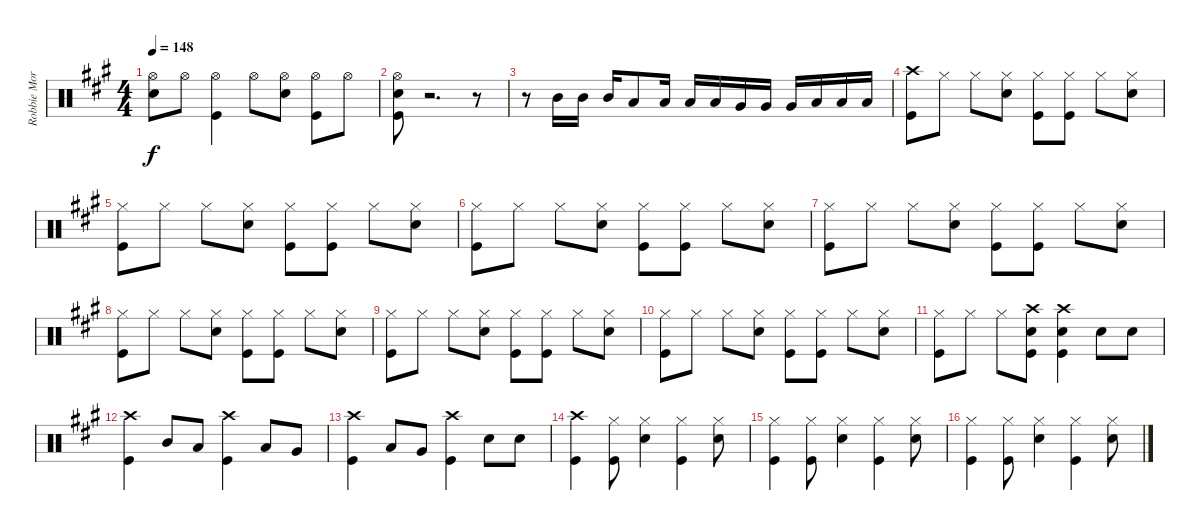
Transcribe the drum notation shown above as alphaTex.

\track ("Robbie Morris Drums" "Robbie Mor") {instrument percussion}
\staff {score}
\articulation defaults
\ts (4 4)
\tempo 148
\clef neutral
\ks a
("Hi-Hat (open)" "Snare (hit) 2").8{dy f} "Hi-Hat (open)".8 ("Hi-Hat (open)" "Kick (hit)").4 "Hi-Hat (open)".8 ("Hi-Hat (open)" "Snare (hit) 2").8 ("Hi-Hat (open)" "Kick (hit)").8 "Hi-Hat (open)".8 |
("Hi-Hat (open)" "Snare (hit) 2" "Kick (hit)").8 r.2{d} r.8 |
r.8 "Mid Tom (hit)".16 "Mid Tom (hit)".16 "Mid Tom (hit)".16 "Low Tom (hit)".8 "Low Tom (hit)".16 "Low Tom (hit)".16 "Low Tom (hit)".16 "Very Low Tom (hit)".16 "Very Low Tom (hit)".16 "Very Low Tom (hit)".16 "Low Floor Tom (hit)".16 "Low Floor Tom (hit)".16 "Low Floor Tom (hit)".16 |
("Crash high (hit)" "Kick (hit)").8 "Hi-Hat (closed)".8 "Hi-Hat (closed)".8 ("Hi-Hat (closed)" "Snare (hit) 2").8 ("Hi-Hat (closed)" "Kick (hit)").8 ("Hi-Hat (closed)" "Kick (hit)").8 "Hi-Hat (closed)".8 ("Hi-Hat (closed)" "Snare (hit) 2").8 |
("Hi-Hat (closed)" "Kick (hit)").8 "Hi-Hat (closed)".8 "Hi-Hat (closed)".8 ("Hi-Hat (closed)" "Snare (hit) 2").8 ("Hi-Hat (closed)" "Kick (hit)").8 ("Hi-Hat (closed)" "Kick (hit)").8 "Hi-Hat (closed)".8 ("Hi-Hat (closed)" "Snare (hit) 2").8 |
("Hi-Hat (closed)" "Kick (hit)").8 "Hi-Hat (closed)".8 "Hi-Hat (closed)".8 ("Hi-Hat (closed)" "Snare (hit) 2").8 ("Hi-Hat (closed)" "Kick (hit)").8 ("Hi-Hat (closed)" "Kick (hit)").8 "Hi-Hat (closed)".8 ("Hi-Hat (closed)" "Snare (hit) 2").8 |
("Hi-Hat (closed)" "Kick (hit)").8 "Hi-Hat (closed)".8 "Hi-Hat (closed)".8 ("Hi-Hat (closed)" "Snare (hit) 2").8 ("Hi-Hat (closed)" "Kick (hit)").8 ("Hi-Hat (closed)" "Kick (hit)").8 "Hi-Hat (closed)".8 ("Hi-Hat (closed)" "Snare (hit) 2").8 |
("Hi-Hat (closed)" "Kick (hit)").8 "Hi-Hat (closed)".8 "Hi-Hat (closed)".8 ("Hi-Hat (closed)" "Snare (hit) 2").8 ("Hi-Hat (closed)" "Kick (hit)").8 ("Hi-Hat (closed)" "Kick (hit)").8 "Hi-Hat (closed)".8 ("Hi-Hat (closed)" "Snare (hit) 2").8 |
("Hi-Hat (closed)" "Kick (hit)").8 "Hi-Hat (closed)".8 "Hi-Hat (closed)".8 ("Hi-Hat (closed)" "Snare (hit) 2").8 ("Hi-Hat (closed)" "Kick (hit)").8 ("Hi-Hat (closed)" "Kick (hit)").8 "Hi-Hat (closed)".8 ("Hi-Hat (closed)" "Snare (hit) 2").8 |
("Hi-Hat (closed)" "Kick (hit)").8 "Hi-Hat (closed)".8 "Hi-Hat (closed)".8 ("Hi-Hat (closed)" "Snare (hit) 2").8 ("Hi-Hat (closed)" "Kick (hit)").8 ("Hi-Hat (closed)" "Kick (hit)").8 "Hi-Hat (closed)".8 ("Hi-Hat (closed)" "Snare (hit) 2").8 |
("Hi-Hat (closed)" "Kick (hit)").8 "Hi-Hat (closed)".8 "Hi-Hat (closed)".8 ("Crash high (hit)" "Snare (hit) 2" "Kick (hit)").8 ("Crash high (hit)" "Snare (hit) 2" "Kick (hit)").4 "Snare (hit) 2".8 "Snare (hit) 2".8 |
("Crash high (hit)" "Kick (hit)").4 "Mid Tom (hit)".8 "Low Tom (hit)".8 ("Crash high (hit)" "Kick (hit)").4 "Low Tom (hit)".8 "Very Low Tom (hit)".8 |
("Crash high (hit)" "Kick (hit)").4 "Low Tom (hit)".8 "Very Low Tom (hit)".8 ("Crash high (hit)" "Kick (hit)").4 "Snare (hit) 2".8 "Snare (hit) 2".8 |
("Crash high (hit)" "Kick (hit)").4 ("Hi-Hat (closed)" "Kick (hit)").8 ("Hi-Hat (closed)" "Snare (hit) 2").4 ("Hi-Hat (closed)" "Kick (hit)").4 ("Hi-Hat (closed)" "Snare (hit) 2").8 |
("Hi-Hat (closed)" "Kick (hit)").4 ("Hi-Hat (closed)" "Kick (hit)").8 ("Hi-Hat (closed)" "Snare (hit) 2").4 ("Hi-Hat (closed)" "Kick (hit)").4 ("Hi-Hat (closed)" "Snare (hit) 2").8 |
("Hi-Hat (closed)" "Kick (hit)").4 ("Hi-Hat (closed)" "Kick (hit)").8 ("Hi-Hat (closed)" "Snare (hit) 2").4 ("Hi-Hat (closed)" "Kick (hit)").4 ("Hi-Hat (closed)" "Snare (hit) 2").8
